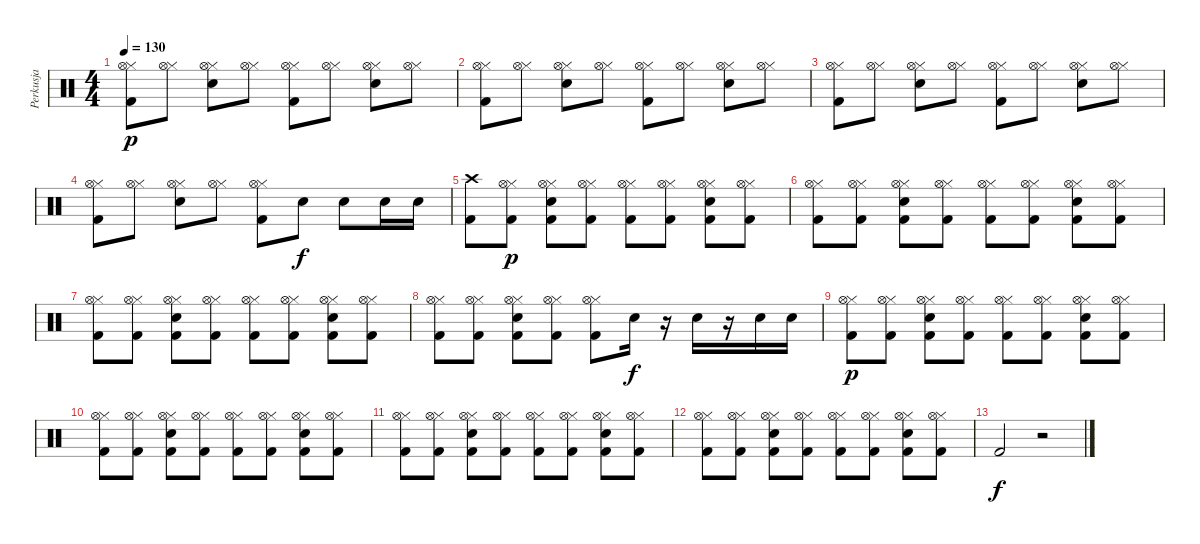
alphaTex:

\track ("Perkusja" "Perkusja") {instrument percussion}
\staff {score}
\articulation defaults
\ts (4 4)
\tempo 130
\clef neutral
\ks c
("Kick (hit) 2" "Hi-Hat (closed)" "Hi-Hat (open)").8{dy p} ("Hi-Hat (closed)" "Hi-Hat (open)").8 ("Electric Snare (hit)" "Hi-Hat (closed)" "Hi-Hat (open)").8 ("Hi-Hat (closed)" "Hi-Hat (open)").8 ("Kick (hit) 2" "Hi-Hat (closed)" "Hi-Hat (open)").8 ("Hi-Hat (closed)" "Hi-Hat (open)").8 ("Electric Snare (hit)" "Hi-Hat (closed)" "Hi-Hat (open)").8 ("Hi-Hat (closed)" "Hi-Hat (open)").8 |
("Kick (hit) 2" "Hi-Hat (closed)" "Hi-Hat (open)").8 ("Hi-Hat (closed)" "Hi-Hat (open)").8 ("Electric Snare (hit)" "Hi-Hat (closed)" "Hi-Hat (open)").8 ("Hi-Hat (closed)" "Hi-Hat (open)").8 ("Kick (hit) 2" "Hi-Hat (closed)" "Hi-Hat (open)").8 ("Hi-Hat (closed)" "Hi-Hat (open)").8 ("Electric Snare (hit)" "Hi-Hat (closed)" "Hi-Hat (open)").8 ("Hi-Hat (closed)" "Hi-Hat (open)").8 |
("Kick (hit) 2" "Hi-Hat (closed)" "Hi-Hat (open)").8 ("Hi-Hat (closed)" "Hi-Hat (open)").8 ("Electric Snare (hit)" "Hi-Hat (closed)" "Hi-Hat (open)").8 ("Hi-Hat (closed)" "Hi-Hat (open)").8 ("Kick (hit) 2" "Hi-Hat (closed)" "Hi-Hat (open)").8 ("Hi-Hat (closed)" "Hi-Hat (open)").8 ("Electric Snare (hit)" "Hi-Hat (closed)" "Hi-Hat (open)").8 ("Hi-Hat (closed)" "Hi-Hat (open)").8 |
("Kick (hit) 2" "Hi-Hat (closed)" "Hi-Hat (open)").8 ("Hi-Hat (closed)" "Hi-Hat (open)").8 ("Electric Snare (hit)" "Hi-Hat (closed)" "Hi-Hat (open)").8 ("Hi-Hat (closed)" "Hi-Hat (open)").8 ("Kick (hit) 2" "Hi-Hat (closed)" "Hi-Hat (open)").8 "Electric Snare (hit)".8{dy f} "Electric Snare (hit)".8 "Electric Snare (hit)".16 "Electric Snare (hit)".16 |
("Crash high (hit)" "Kick (hit) 2").8 ("Hi-Hat (closed)" "Hi-Hat (open)" "Kick (hit) 2").8{dy p} ("Electric Snare (hit)" "Hi-Hat (closed)" "Hi-Hat (open)" "Kick (hit) 2").8 ("Hi-Hat (closed)" "Hi-Hat (open)" "Kick (hit) 2").8 ("Hi-Hat (closed)" "Hi-Hat (open)" "Kick (hit) 2").8 ("Hi-Hat (closed)" "Hi-Hat (open)" "Kick (hit) 2").8 ("Electric Snare (hit)" "Hi-Hat (closed)" "Hi-Hat (open)" "Kick (hit) 2").8 ("Hi-Hat (closed)" "Hi-Hat (open)" "Kick (hit) 2").8 |
("Hi-Hat (closed)" "Hi-Hat (open)" "Kick (hit) 2").8 ("Hi-Hat (closed)" "Hi-Hat (open)" "Kick (hit) 2").8 ("Electric Snare (hit)" "Hi-Hat (closed)" "Hi-Hat (open)" "Kick (hit) 2").8 ("Hi-Hat (closed)" "Hi-Hat (open)" "Kick (hit) 2").8 ("Hi-Hat (closed)" "Hi-Hat (open)" "Kick (hit) 2").8 ("Hi-Hat (closed)" "Hi-Hat (open)" "Kick (hit) 2").8 ("Electric Snare (hit)" "Hi-Hat (closed)" "Hi-Hat (open)" "Kick (hit) 2").8 ("Hi-Hat (closed)" "Hi-Hat (open)" "Kick (hit) 2").8 |
("Hi-Hat (closed)" "Hi-Hat (open)" "Kick (hit) 2").8 ("Hi-Hat (closed)" "Hi-Hat (open)" "Kick (hit) 2").8 ("Electric Snare (hit)" "Hi-Hat (closed)" "Hi-Hat (open)" "Kick (hit) 2").8 ("Hi-Hat (closed)" "Hi-Hat (open)" "Kick (hit) 2").8 ("Hi-Hat (closed)" "Hi-Hat (open)" "Kick (hit) 2").8 ("Hi-Hat (closed)" "Hi-Hat (open)" "Kick (hit) 2").8 ("Electric Snare (hit)" "Hi-Hat (closed)" "Hi-Hat (open)" "Kick (hit) 2").8 ("Hi-Hat (closed)" "Hi-Hat (open)" "Kick (hit) 2").8 |
("Hi-Hat (closed)" "Hi-Hat (open)" "Kick (hit) 2").8 ("Hi-Hat (closed)" "Hi-Hat (open)" "Kick (hit) 2").8 ("Electric Snare (hit)" "Hi-Hat (closed)" "Hi-Hat (open)" "Kick (hit) 2").8 ("Hi-Hat (closed)" "Hi-Hat (open)" "Kick (hit) 2").8 ("Hi-Hat (closed)" "Hi-Hat (open)" "Kick (hit) 2").8 "Electric Snare (hit)".16{dy f} r.16 "Electric Snare (hit)".16 r.16 "Electric Snare (hit)".16 "Electric Snare (hit)".16 |
("Hi-Hat (closed)" "Hi-Hat (open)" "Kick (hit) 2").8{dy p} ("Hi-Hat (closed)" "Hi-Hat (open)" "Kick (hit) 2").8 ("Electric Snare (hit)" "Hi-Hat (closed)" "Hi-Hat (open)" "Kick (hit) 2").8 ("Hi-Hat (closed)" "Hi-Hat (open)" "Kick (hit) 2").8 ("Hi-Hat (closed)" "Hi-Hat (open)" "Kick (hit) 2").8 ("Hi-Hat (closed)" "Hi-Hat (open)" "Kick (hit) 2").8 ("Electric Snare (hit)" "Hi-Hat (closed)" "Hi-Hat (open)" "Kick (hit) 2").8 ("Hi-Hat (closed)" "Hi-Hat (open)" "Kick (hit) 2").8 |
("Hi-Hat (closed)" "Hi-Hat (open)" "Kick (hit) 2").8 ("Hi-Hat (closed)" "Hi-Hat (open)" "Kick (hit) 2").8 ("Electric Snare (hit)" "Hi-Hat (closed)" "Hi-Hat (open)" "Kick (hit) 2").8 ("Hi-Hat (closed)" "Hi-Hat (open)" "Kick (hit) 2").8 ("Hi-Hat (closed)" "Hi-Hat (open)" "Kick (hit) 2").8 ("Hi-Hat (closed)" "Hi-Hat (open)" "Kick (hit) 2").8 ("Electric Snare (hit)" "Hi-Hat (closed)" "Hi-Hat (open)" "Kick (hit) 2").8 ("Hi-Hat (closed)" "Hi-Hat (open)" "Kick (hit) 2").8 |
("Hi-Hat (closed)" "Hi-Hat (open)" "Kick (hit) 2").8 ("Hi-Hat (closed)" "Hi-Hat (open)" "Kick (hit) 2").8 ("Electric Snare (hit)" "Hi-Hat (closed)" "Hi-Hat (open)" "Kick (hit) 2").8 ("Hi-Hat (closed)" "Hi-Hat (open)" "Kick (hit) 2").8 ("Hi-Hat (closed)" "Hi-Hat (open)" "Kick (hit) 2").8 ("Hi-Hat (closed)" "Hi-Hat (open)" "Kick (hit) 2").8 ("Electric Snare (hit)" "Hi-Hat (closed)" "Hi-Hat (open)" "Kick (hit) 2").8 ("Hi-Hat (closed)" "Hi-Hat (open)" "Kick (hit) 2").8 |
("Hi-Hat (closed)" "Hi-Hat (open)" "Kick (hit) 2").8 ("Hi-Hat (closed)" "Hi-Hat (open)" "Kick (hit) 2").8 ("Electric Snare (hit)" "Hi-Hat (closed)" "Hi-Hat (open)" "Kick (hit) 2").8 ("Hi-Hat (closed)" "Hi-Hat (open)" "Kick (hit) 2").8 ("Hi-Hat (closed)" "Hi-Hat (open)" "Kick (hit) 2").8 ("Hi-Hat (closed)" "Hi-Hat (open)" "Kick (hit) 2").8 ("Electric Snare (hit)" "Hi-Hat (closed)" "Hi-Hat (open)" "Kick (hit) 2").8 ("Hi-Hat (closed)" "Hi-Hat (open)" "Kick (hit) 2").8 |
"Kick (hit) 2".2{dy f} r.2
